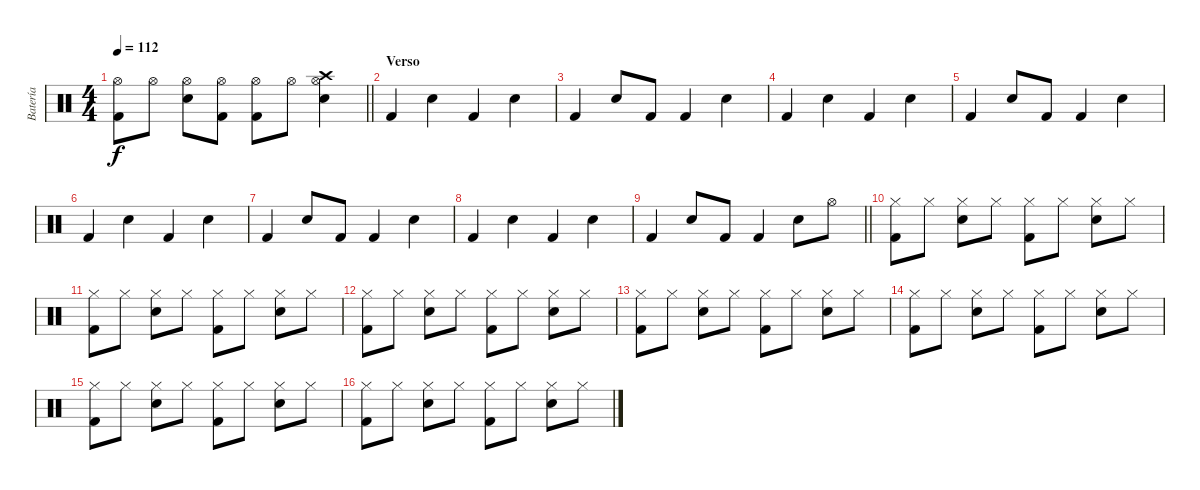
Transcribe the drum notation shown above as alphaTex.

\track ("Batería" "Batería") {instrument percussion}
\staff {score}
\articulation defaults
\ts (4 4)
\tempo 112
\clef neutral
\barLineRight lightlight
\ks c
("Hi-Hat (open)" "Kick (hit) 2").8{dy f} "Hi-Hat (open)".8 ("Hi-Hat (open)" "Electric Snare (hit)").8 ("Hi-Hat (open)" "Kick (hit) 2").8 ("Hi-Hat (open)" "Kick (hit) 2").8 "Hi-Hat (open)".8 ("Hi-Hat (open)" "Electric Snare (hit)" "Crash high (hit)").4 |
\section ("" "Verso")
"Kick (hit) 2".4 "Electric Snare (hit)".4 "Kick (hit) 2".4 "Electric Snare (hit)".4 |
"Kick (hit) 2".4 "Electric Snare (hit)".8 "Kick (hit) 2".8 "Kick (hit) 2".4 "Electric Snare (hit)".4 |
"Kick (hit) 2".4 "Electric Snare (hit)".4 "Kick (hit) 2".4 "Electric Snare (hit)".4 |
"Kick (hit) 2".4 "Electric Snare (hit)".8 "Kick (hit) 2".8 "Kick (hit) 2".4 "Electric Snare (hit)".4 |
"Kick (hit) 2".4 "Electric Snare (hit)".4 "Kick (hit) 2".4 "Electric Snare (hit)".4 |
"Kick (hit) 2".4 "Electric Snare (hit)".8 "Kick (hit) 2".8 "Kick (hit) 2".4 "Electric Snare (hit)".4 |
"Kick (hit) 2".4 "Electric Snare (hit)".4 "Kick (hit) 2".4 "Electric Snare (hit)".4 |
\barLineRight lightlight "Kick (hit) 2".4 "Electric Snare (hit)".8 "Kick (hit) 2".8 "Kick (hit) 2".4 "Electric Snare (hit)".8 "Hi-Hat (open)".8
|
\section ("" "")
("Kick (hit) 2" "Hi-Hat (closed)").8 "Hi-Hat (closed)".8 ("Electric Snare (hit)" "Hi-Hat (closed)").8 "Hi-Hat (closed)".8 ("Kick (hit) 2" "Hi-Hat (closed)").8 "Hi-Hat (closed)".8 ("Electric Snare (hit)" "Hi-Hat (closed)").8 "Hi-Hat (closed)".8 |
("Kick (hit) 2" "Hi-Hat (closed)").8 "Hi-Hat (closed)".8 ("Electric Snare (hit)" "Hi-Hat (closed)").8 "Hi-Hat (closed)".8 ("Kick (hit) 2" "Hi-Hat (closed)").8 "Hi-Hat (closed)".8 ("Electric Snare (hit)" "Hi-Hat (closed)").8 "Hi-Hat (closed)".8 |
("Kick (hit) 2" "Hi-Hat (closed)").8 "Hi-Hat (closed)".8 ("Electric Snare (hit)" "Hi-Hat (closed)").8 "Hi-Hat (closed)".8 ("Kick (hit) 2" "Hi-Hat (closed)").8 "Hi-Hat (closed)".8 ("Electric Snare (hit)" "Hi-Hat (closed)").8 "Hi-Hat (closed)".8 |
("Kick (hit) 2" "Hi-Hat (closed)").8 "Hi-Hat (closed)".8 ("Electric Snare (hit)" "Hi-Hat (closed)").8 "Hi-Hat (closed)".8 ("Kick (hit) 2" "Hi-Hat (closed)").8 "Hi-Hat (closed)".8 ("Electric Snare (hit)" "Hi-Hat (closed)").8 "Hi-Hat (closed)".8 |
("Kick (hit) 2" "Hi-Hat (closed)").8 "Hi-Hat (closed)".8 ("Electric Snare (hit)" "Hi-Hat (closed)").8 "Hi-Hat (closed)".8 ("Kick (hit) 2" "Hi-Hat (closed)").8 "Hi-Hat (closed)".8 ("Electric Snare (hit)" "Hi-Hat (closed)").8 "Hi-Hat (closed)".8 |
("Kick (hit) 2" "Hi-Hat (closed)").8 "Hi-Hat (closed)".8 ("Electric Snare (hit)" "Hi-Hat (closed)").8 "Hi-Hat (closed)".8 ("Kick (hit) 2" "Hi-Hat (closed)").8 "Hi-Hat (closed)".8 ("Electric Snare (hit)" "Hi-Hat (closed)").8 "Hi-Hat (closed)".8 |
("Kick (hit) 2" "Hi-Hat (closed)").8 "Hi-Hat (closed)".8 ("Electric Snare (hit)" "Hi-Hat (closed)").8 "Hi-Hat (closed)".8 ("Kick (hit) 2" "Hi-Hat (closed)").8 "Hi-Hat (closed)".8 ("Electric Snare (hit)" "Hi-Hat (closed)").8 "Hi-Hat (closed)".8
